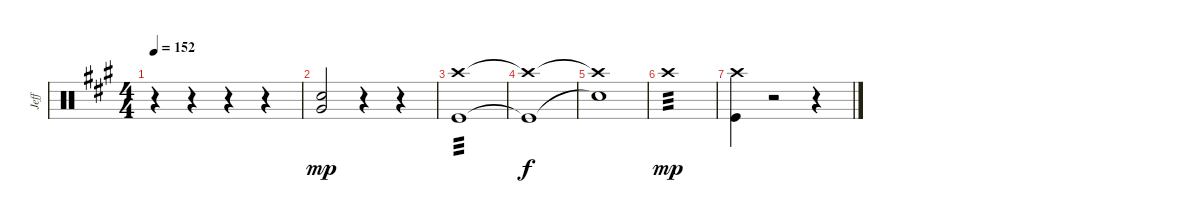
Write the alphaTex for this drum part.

\track ("Jeff" "Jeff") {instrument percussion}
\staff {score}
\articulation defaults
\ts (4 4)
\tempo 152
\clef neutral
\ks a
r.4{dy mp} r.4 r.4 r.4 |
("Very Low Tom (hit)" "Snare (hit) 2").2 r.4 r.4 |
("Crash high (hit)" "Kick (hit)").1{tp 3} |
("Crash high (hit)"{t} "Kick (hit)"{t}).1{dy f} |
("Crash high (hit)"{t} "Snare (hit)"{t}).1 |
"Crash high (hit)".1{tp 3 dy mp} |
("Crash high (hit)" "Kick (hit)").4 r.2 r.4
